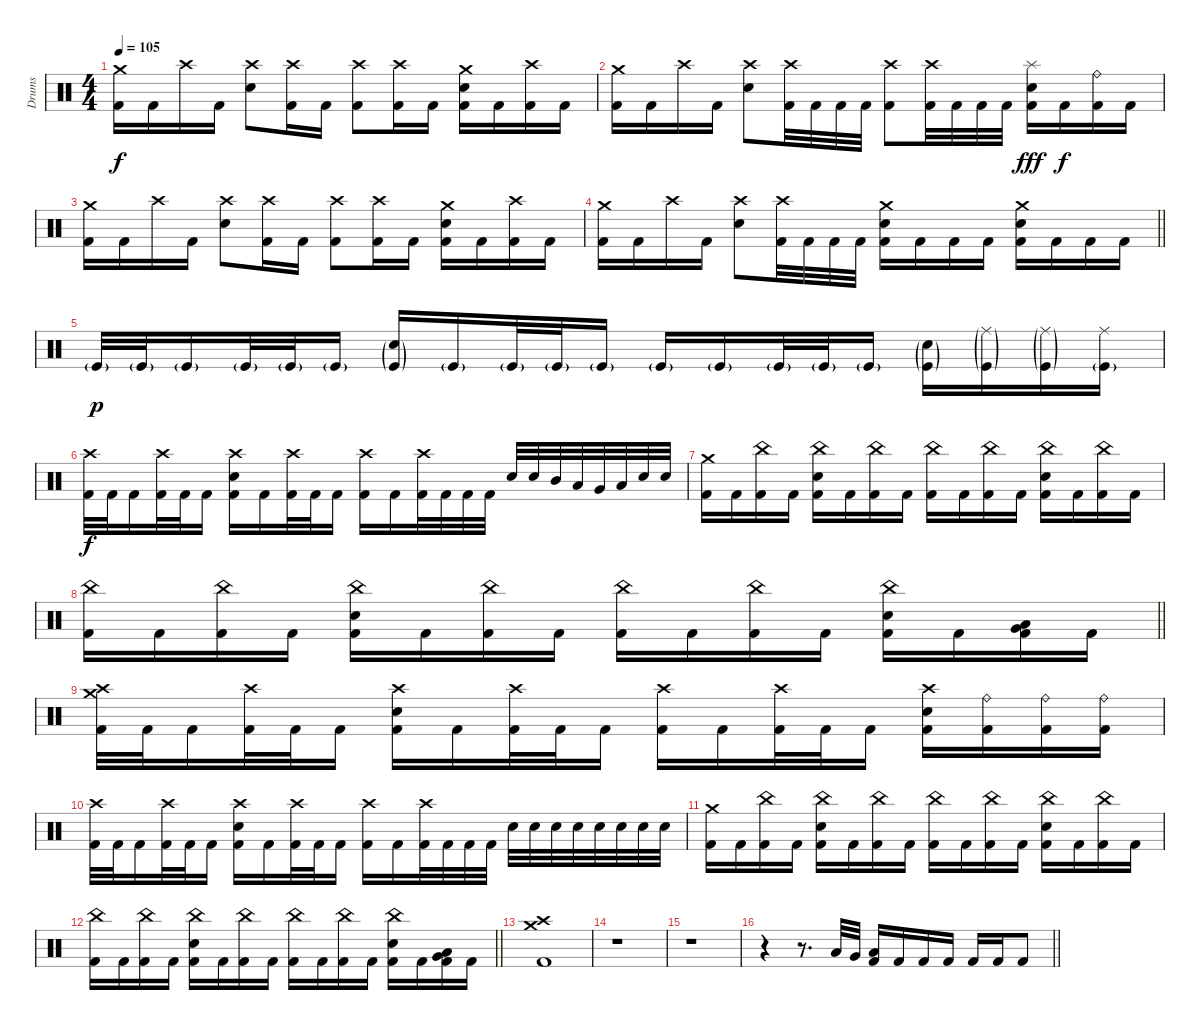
\track ("Drums" "Drums") {instrument percussion}
\staff {score}
\articulation defaults
\ts (4 4)
\section ("" "")
\tempo 105
\clef neutral
\ks c
("Crash medium (hit)" "Kick (hit) 2").16{dy f} "Kick (hit) 2".16 "Crash high (hit)".16 "Kick (hit) 2".16 ("Crash high (hit)" "Electric Snare (hit)").8 ("Crash high (hit)" "Kick (hit) 2").16 "Kick (hit) 2".16 ("Crash high (hit)" "Kick (hit) 2").8 ("Crash high (hit)" "Kick (hit) 2").16 "Kick (hit) 2".16 ("Crash medium (hit)" "Electric Snare (hit)" "Kick (hit) 2").16 "Kick (hit) 2".16 ("Crash high (hit)" "Kick (hit) 2").16 "Kick (hit) 2".16 |
("Crash medium (hit)" "Kick (hit) 2").16 "Kick (hit) 2".16 "Crash high (hit)".16 "Kick (hit) 2".16 ("Crash high (hit)" "Electric Snare (hit)").8 ("Crash high (hit)" "Kick (hit) 2").32 "Kick (hit) 2".32 "Kick (hit) 2".32 "Kick (hit) 2".32 ("Crash high (hit)" "Kick (hit) 2").8 ("Crash high (hit)" "Kick (hit) 2").32 "Kick (hit) 2".32 "Kick (hit) 2".32 "Kick (hit) 2".32 ("Splash (hit)" "Electric Snare (hit)" "Kick (hit) 2").16{dy fff} "Kick (hit) 2".16{dy f} ("Ride (bell)" "Kick (hit) 2").16 "Kick (hit) 2".16 |
("Crash medium (hit)" "Kick (hit) 2").16 "Kick (hit) 2".16 "Crash high (hit)".16 "Kick (hit) 2".16 ("Crash high (hit)" "Electric Snare (hit)").8 ("Crash high (hit)" "Kick (hit) 2").16 "Kick (hit) 2".16 ("Crash high (hit)" "Kick (hit) 2").8 ("Crash high (hit)" "Kick (hit) 2").16 "Kick (hit) 2".16 ("Crash medium (hit)" "Electric Snare (hit)" "Kick (hit) 2").16 "Kick (hit) 2".16 ("Crash high (hit)" "Kick (hit) 2").16 "Kick (hit) 2".16 |
\barLineRight lightlight
("Crash medium (hit)" "Kick (hit) 2").16 "Kick (hit) 2".16 "Crash high (hit)".16 "Kick (hit) 2".16 ("Crash high (hit)" "Electric Snare (hit)").8 ("Crash high (hit)" "Kick (hit) 2").32 "Kick (hit) 2".32 "Kick (hit) 2".32 "Kick (hit) 2".32 ("Crash medium (hit)" "Electric Snare (hit)" "Kick (hit) 2").16 "Kick (hit) 2".16 "Kick (hit) 2".16 "Kick (hit) 2".16 ("Crash medium (hit)" "Electric Snare (hit)" "Kick (hit) 2").16 "Kick (hit) 2".16 "Kick (hit) 2".16 "Kick (hit) 2".16 |
\section ("" "")
"Kick (hit)"{g}.32{dy p} "Kick (hit)"{g}.32 "Kick (hit)"{g}.16 "Kick (hit)"{g}.32 "Kick (hit)"{g}.32 "Kick (hit)"{g}.16 ("Snare (hit) 2"{g} "Kick (hit)"{g}).16 "Kick (hit)"{g}.16 "Kick (hit)"{g}.32 "Kick (hit)"{g}.32 "Kick (hit)"{g}.16 "Kick (hit)"{g}.16 "Kick (hit)"{g}.16 "Kick (hit)"{g}.32 "Kick (hit)"{g}.32 "Kick (hit)"{g}.16 ("Snare (hit) 2"{g} "Kick (hit)"{g}).16 ("Ride (middle)"{g} "Kick (hit)"{g}).16 ("Ride (middle)"{g} "Kick (hit)"{g}).16 ("Ride (middle)" "Kick (hit)"{g}).16 |
("Crash high (hit)" "Kick (hit) 2").32{dy f} "Kick (hit) 2".32 "Kick (hit) 2".16 ("Crash high (hit)" "Kick (hit) 2").32 "Kick (hit) 2".32 "Kick (hit) 2".16 ("Crash high (hit)" "Electric Snare (hit)" "Kick (hit) 2").16 "Kick (hit) 2".16 ("Crash high (hit)" "Kick (hit) 2").32 "Kick (hit) 2".32 "Kick (hit) 2".16 ("Crash high (hit)" "Kick (hit) 2").16 "Kick (hit) 2".16 ("Crash high (hit)" "Kick (hit) 2").32 "Kick (hit) 2".32 "Kick (hit) 2".32 "Kick (hit) 2".32 "Electric Snare (hit)".32 "Electric Snare (hit)".32 "Mid Tom (hit)".32 "Low Tom (hit)".32 "Very Low Tom (hit)".32 "Low Floor Tom (hit)".32 "Electric Snare (hit)".32 "Electric Snare (hit)".32 |
("Crash medium (hit)" "Kick (hit) 2").16 "Kick (hit) 2".16 ("China (hit)" "Kick (hit) 2").16 "Kick (hit) 2".16 ("China (hit)" "Electric Snare (hit)" "Kick (hit) 2").16 "Kick (hit) 2".16 ("China (hit)" "Kick (hit) 2").16 "Kick (hit) 2".16 ("China (hit)" "Kick (hit) 2").16 "Kick (hit) 2".16 ("China (hit)" "Kick (hit) 2").16 "Kick (hit) 2".16 ("China (hit)" "Electric Snare (hit)" "Kick (hit) 2").16 "Kick (hit) 2".16 ("China (hit)" "Kick (hit) 2").16 "Kick (hit) 2".16 |
\barLineRight lightlight
("China (hit)" "Kick (hit) 2").16 "Kick (hit) 2".16 ("China (hit)" "Kick (hit) 2").16 "Kick (hit) 2".16 ("China (hit)" "Electric Snare (hit)" "Kick (hit) 2").16 "Kick (hit) 2".16 ("China (hit)" "Kick (hit) 2").16 "Kick (hit) 2".16 ("China (hit)" "Kick (hit) 2").16 "Kick (hit) 2".16 ("China (hit)" "Kick (hit) 2").16 "Kick (hit) 2".16 ("China (hit)" "Electric Snare (hit)" "Kick (hit) 2").16 "Kick (hit) 2".16 ("Very Low Tom (hit)" "Low Floor Tom (hit)" "Kick (hit) 2").16 "Kick (hit) 2".16 |
\section ("" "")
("Crash high (hit)" "Crash medium (hit)" "Kick (hit) 2").32 "Kick (hit) 2".32 "Kick (hit) 2".16 ("Crash high (hit)" "Kick (hit) 2").32 "Kick (hit) 2".32 "Kick (hit) 2".16 ("Crash high (hit)" "Electric Snare (hit)" "Kick (hit) 2").16 "Kick (hit) 2".16 ("Crash high (hit)" "Kick (hit) 2").32 "Kick (hit) 2".32 "Kick (hit) 2".16 ("Crash high (hit)" "Kick (hit) 2").16 "Kick (hit) 2".16 ("Crash high (hit)" "Kick (hit) 2").32 "Kick (hit) 2".32 "Kick (hit) 2".16 ("Crash high (hit)" "Electric Snare (hit)" "Kick (hit) 2").16 ("Ride (bell)" "Kick (hit) 2").16 ("Ride (bell)" "Kick (hit) 2").16 ("Ride (bell)" "Kick (hit) 2").16 |
("Crash high (hit)" "Kick (hit) 2").32 "Kick (hit) 2".32 "Kick (hit) 2".16 ("Crash high (hit)" "Kick (hit) 2").32 "Kick (hit) 2".32 "Kick (hit) 2".16 ("Crash high (hit)" "Electric Snare (hit)" "Kick (hit) 2").16 "Kick (hit) 2".16 ("Crash high (hit)" "Kick (hit) 2").32 "Kick (hit) 2".32 "Kick (hit) 2".16 ("Crash high (hit)" "Kick (hit) 2").16 "Kick (hit) 2".16 ("Crash high (hit)" "Kick (hit) 2").32 "Kick (hit) 2".32 "Kick (hit) 2".32 "Kick (hit) 2".32 "Electric Snare (hit)".32 "Electric Snare (hit)".32 "Electric Snare (hit)".32 "Electric Snare (hit)".32 "Electric Snare (hit)".32 "Electric Snare (hit)".32 "Electric Snare (hit)".32 "Electric Snare (hit)".32 |
("Crash medium (hit)" "Kick (hit) 2").16 "Kick (hit) 2".16 ("China (hit)" "Kick (hit) 2").16 "Kick (hit) 2".16 ("China (hit)" "Electric Snare (hit)" "Kick (hit) 2").16 "Kick (hit) 2".16 ("China (hit)" "Kick (hit) 2").16 "Kick (hit) 2".16 ("China (hit)" "Kick (hit) 2").16 "Kick (hit) 2".16 ("China (hit)" "Kick (hit) 2").16 "Kick (hit) 2".16 ("China (hit)" "Electric Snare (hit)" "Kick (hit) 2").16 "Kick (hit) 2".16 ("China (hit)" "Kick (hit) 2").16 "Kick (hit) 2".16 |
\barLineRight lightlight
("China (hit)" "Kick (hit) 2").16 "Kick (hit) 2".16 ("China (hit)" "Kick (hit) 2").16 "Kick (hit) 2".16 ("China (hit)" "Electric Snare (hit)" "Kick (hit) 2").16 "Kick (hit) 2".16 ("China (hit)" "Kick (hit) 2").16 "Kick (hit) 2".16 ("China (hit)" "Kick (hit) 2").16 "Kick (hit) 2".16 ("China (hit)" "Kick (hit) 2").16 "Kick (hit) 2".16 ("China (hit)" "Electric Snare (hit)" "Kick (hit) 2").16 "Kick (hit) 2".16 ("Very Low Tom (hit)" "Low Floor Tom (hit)" "Kick (hit) 2").16 "Kick (hit) 2".16 |
\section ("" "")
("Crash high (hit)" "Crash medium (hit)" "Kick (hit) 2").1 |
r.1 |
r.1 |
\barLineRight lightlight
r.4 r.8{d} "Low Tom (hit)".32 "Very Low Tom (hit)".32 ("Low Floor Tom (hit)" "Kick (hit) 2").16 "Kick (hit) 2".16 "Kick (hit) 2".16 "Kick (hit) 2".16 "Kick (hit) 2".16 "Kick (hit) 2".16 "Kick (hit) 2".8
